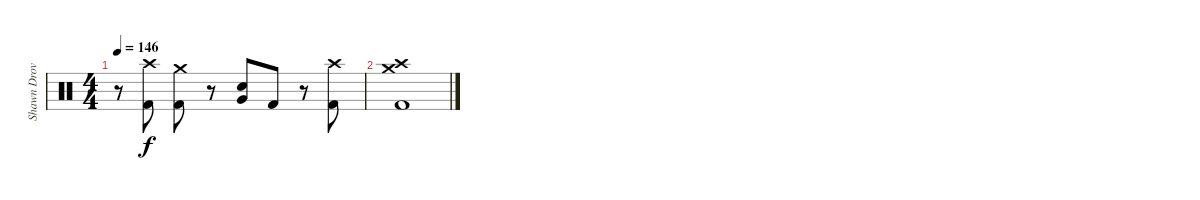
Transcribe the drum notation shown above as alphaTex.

\track ("Shawn Drover" "Shawn Drov") {instrument percussion}
\staff {score}
\articulation defaults
\ts (4 4)
\tempo 146
\clef neutral
\ks c
r.8{dy f} ("Crash high (hit)" "Kick (hit) 2").8 ("Crash medium (hit)" "Kick (hit) 2").8 r.8 ("Very Low Tom (hit)" "Snare (hit) 2").8 "Kick (hit) 2".8 r.8 ("Crash high (hit)" "Kick (hit) 2").8 |
("Crash medium (hit)" "Crash high (hit)" "Kick (hit) 2").1
